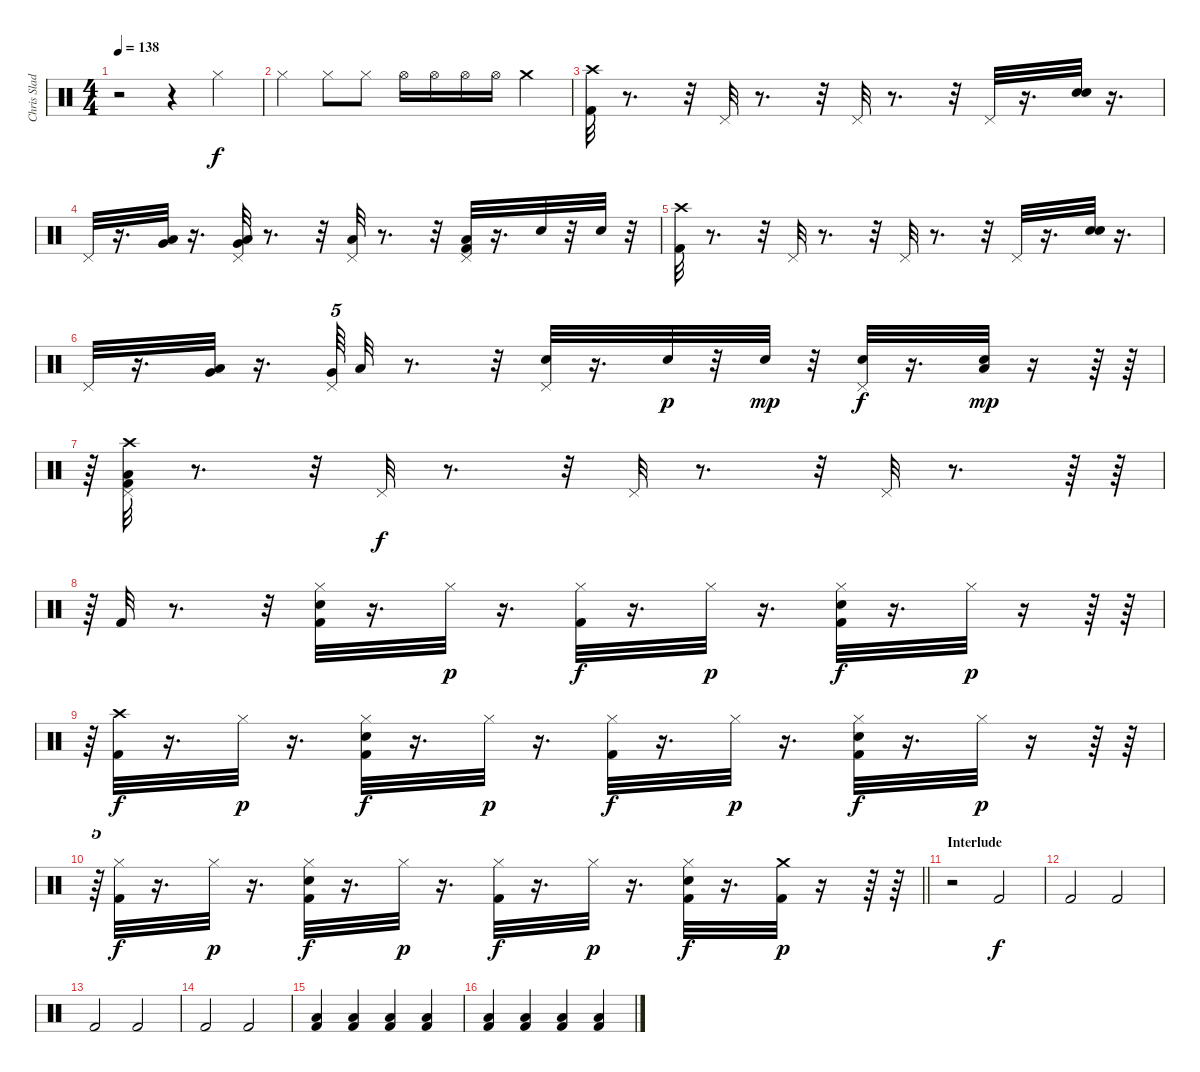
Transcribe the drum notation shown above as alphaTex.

\track ("Chris Slade" "Chris Slad") {instrument percussion}
\staff {score}
\articulation defaults
\ts (4 4)
\tempo 138
\clef neutral
\ks c
r.2{dy f} r.4 "Hi-Hat (closed)".4 |
"Hi-Hat (closed)".4 "Hi-Hat (closed)".8 "Hi-Hat (closed)".8 "Hi-Hat (open)".16 "Hi-Hat (open)".16 "Hi-Hat (open)".16 "Hi-Hat (open)".16 "Crash medium (hit)".4 |
("Crash high (hit)" "Kick (hit) 2").32 r.8{d} r.32 "Pedal Hi-Hat (hit)".32 r.8{d} r.32 "Pedal Hi-Hat (hit)".32 r.8{d} r.32 "Pedal Hi-Hat (hit)".32 r.16{d} ("Electric Snare (hit)" "Snare (hit) 2").32 r.16{d} |
"Pedal Hi-Hat (hit)".32 r.16{d} ("Low Tom (hit)" "Very Low Tom (hit)").32 r.16{d} ("Pedal Hi-Hat (hit)" "Very Low Tom (hit)" "Low Floor Tom (hit)").32 r.8{d} r.32 ("Pedal Hi-Hat (hit)" "Low Floor Tom (hit)").32 r.8{d} r.32 ("Pedal Hi-Hat (hit)" "Kick (hit) 2" "Low Floor Tom (hit)").32 r.16{d} "Electric Snare (hit)".32 r.32 "Electric Snare (hit)".32 r.32 |
("Crash high (hit)" "Kick (hit) 2").32 r.8{d} r.32 "Pedal Hi-Hat (hit)".32 r.8{d} r.32 "Pedal Hi-Hat (hit)".32 r.8{d} r.32 "Pedal Hi-Hat (hit)".32 r.16{d} ("Electric Snare (hit)" "Snare (hit) 2").32 r.16{d} |
"Pedal Hi-Hat (hit)".32 r.16{d} ("Low Tom (hit)" "Very Low Tom (hit)").32 r.16{d} ("Pedal Hi-Hat (hit)" "Very Low Tom (hit)").64{tu (5 4)} "Low Floor Tom (hit)".32 r.8{d} r.32 ("Pedal Hi-Hat (hit)" "Electric Snare (hit)").32 r.16{d} "Electric Snare (hit)".32{dy p} r.32 "Electric Snare (hit)".32{dy mp} r.32 ("Pedal Hi-Hat (hit)" "Electric Snare (hit)").32{dy f} r.16{d} ("Low Tom (hit)" "Electric Snare (hit)").32{dy mp} r.16 r.64 r.64 |
r.64{tu (5 4)} ("Pedal Hi-Hat (hit)" "Crash high (hit)" "Low Tom (hit)" "Kick (hit) 2").32 r.8{d} r.32 "Pedal Hi-Hat (hit)".32{dy f} r.8{d} r.32 "Pedal Hi-Hat (hit)".32 r.8{d} r.32 "Pedal Hi-Hat (hit)".32 r.8{d} r.64 r.64 |
r.64{tu (5 4)} "Kick (hit) 2".32 r.8{d} r.32 ("Kick (hit) 2" "Hi-Hat (closed)" "Electric Snare (hit)").32 r.16{d} "Hi-Hat (closed)".32{dy p} r.16{d} ("Hi-Hat (closed)" "Kick (hit) 2").32{dy f} r.16{d} "Hi-Hat (closed)".32{dy p} r.16{d} ("Kick (hit) 2" "Hi-Hat (closed)" "Electric Snare (hit)").32{dy f} r.16{d} "Hi-Hat (closed)".32{dy p} r.16 r.64 r.64 |
r.64{tu (5 4)} ("Crash high (hit)" "Kick (hit) 2").32{dy f} r.16{d} "Hi-Hat (closed)".32{dy p} r.16{d} ("Kick (hit) 2" "Hi-Hat (closed)" "Electric Snare (hit)").32{dy f} r.16{d} "Hi-Hat (closed)".32{dy p} r.16{d} ("Hi-Hat (closed)" "Kick (hit) 2").32{dy f} r.16{d} "Hi-Hat (closed)".32{dy p} r.16{d} ("Kick (hit) 2" "Hi-Hat (closed)" "Electric Snare (hit)").32{dy f} r.16{d} "Hi-Hat (closed)".32{dy p} r.16 r.64 r.64 |
\barLineRight lightlight
r.64{tu (5 4)} ("Hi-Hat (closed)" "Kick (hit) 2").32{dy f} r.16{d} "Hi-Hat (closed)".32{dy p} r.16{d} ("Kick (hit) 2" "Electric Snare (hit)" "Hi-Hat (closed)").32{dy f} r.16{d} "Hi-Hat (closed)".32{dy p} r.16{d} ("Hi-Hat (closed)" "Kick (hit) 2").32{dy f} r.16{d} "Hi-Hat (closed)".32{dy p} r.16{d} ("Kick (hit) 2" "Electric Snare (hit)" "Hi-Hat (closed)").32{dy f} r.16{d} ("Crash medium (hit)" "Kick (hit) 2").32{dy p} r.16 r.64 r.64 |
\section ("" "Interlude")
r.2 "Kick (hit) 2".2{dy f} |
"Kick (hit) 2".2 "Kick (hit) 2".2 |
"Kick (hit) 2".2 "Kick (hit) 2".2 |
"Kick (hit) 2".2 "Kick (hit) 2".2 |
("Low Tom (hit)" "Kick (hit) 2").4 ("Low Tom (hit)" "Kick (hit) 2").4 ("Low Tom (hit)" "Kick (hit) 2").4 ("Low Tom (hit)" "Kick (hit) 2").4 |
("Low Tom (hit)" "Kick (hit) 2").4 ("Low Tom (hit)" "Kick (hit) 2").4 ("Low Tom (hit)" "Kick (hit) 2").4 ("Low Tom (hit)" "Kick (hit) 2").4
